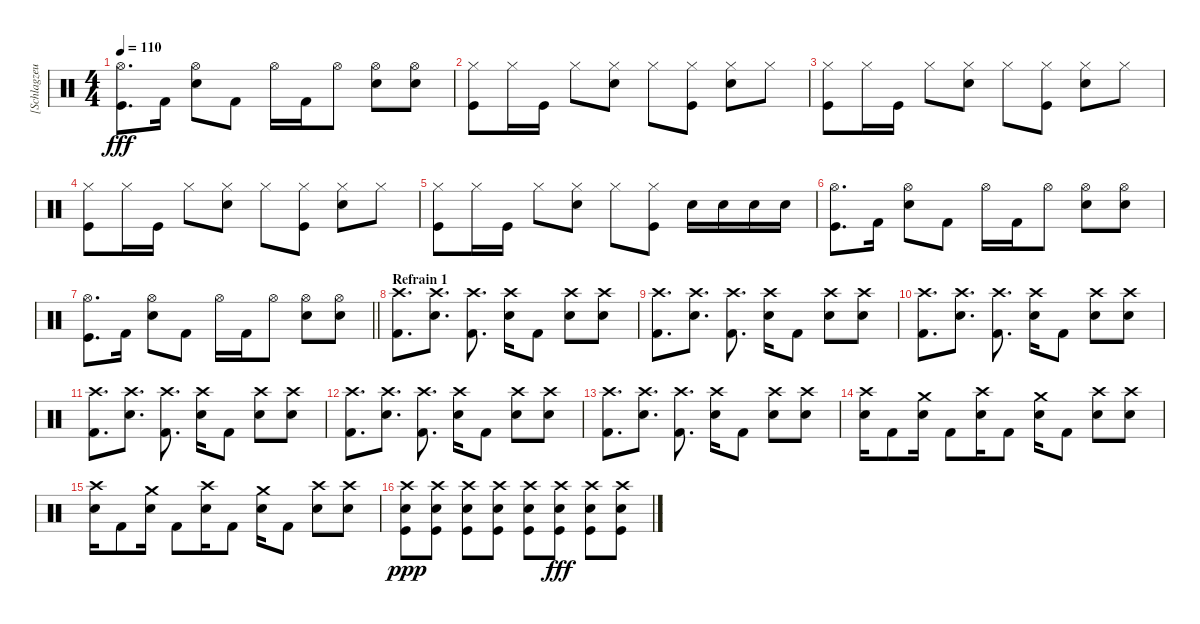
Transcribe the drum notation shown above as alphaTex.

\track ("[Schlagzeug]" "[Schlagzeu") {instrument percussion}
\staff {score}
\articulation defaults
\ts (4 4)
\tempo 110
\clef neutral
\ks c
("Kick (hit)" "Hi-Hat (open)").8{d dy fff} "Kick (hit) 2".16 ("Hi-Hat (open)" "Electric Snare (hit)").8 "Kick (hit) 2".8 "Hi-Hat (open)".16 "Kick (hit) 2".16 "Hi-Hat (open)".8 ("Hi-Hat (open)" "Electric Snare (hit)").8 ("Hi-Hat (open)" "Electric Snare (hit)").8 |
("Hi-Hat (closed)" "Kick (hit)").8 "Hi-Hat (closed)".16 "Kick (hit)".16 "Hi-Hat (closed)".8 ("Hi-Hat (closed)" "Electric Snare (hit)").8 "Hi-Hat (closed)".8 ("Hi-Hat (closed)" "Kick (hit)").8 ("Hi-Hat (closed)" "Electric Snare (hit)").8 "Hi-Hat (closed)".8 |
("Hi-Hat (closed)" "Kick (hit)").8 "Hi-Hat (closed)".16 "Kick (hit)".16 "Hi-Hat (closed)".8 ("Hi-Hat (closed)" "Electric Snare (hit)").8 "Hi-Hat (closed)".8 ("Hi-Hat (closed)" "Kick (hit)").8 ("Hi-Hat (closed)" "Electric Snare (hit)").8 "Hi-Hat (closed)".8 |
("Hi-Hat (closed)" "Kick (hit)").8 "Hi-Hat (closed)".16 "Kick (hit)".16 "Hi-Hat (closed)".8 ("Hi-Hat (closed)" "Electric Snare (hit)").8 "Hi-Hat (closed)".8 ("Hi-Hat (closed)" "Kick (hit)").8 ("Hi-Hat (closed)" "Electric Snare (hit)").8 "Hi-Hat (closed)".8 |
("Hi-Hat (closed)" "Kick (hit)").8 "Hi-Hat (closed)".16 "Kick (hit)".16 "Hi-Hat (closed)".8 ("Hi-Hat (closed)" "Electric Snare (hit)").8 "Hi-Hat (closed)".8 ("Hi-Hat (closed)" "Kick (hit)").8 "Electric Snare (hit)".16 "Electric Snare (hit)".16 "Electric Snare (hit)".16 "Electric Snare (hit)".16 |
("Kick (hit)" "Hi-Hat (open)").8{d} "Kick (hit) 2".16 ("Hi-Hat (open)" "Electric Snare (hit)").8 "Kick (hit) 2".8 "Hi-Hat (open)".16 "Kick (hit) 2".16 "Hi-Hat (open)".8 ("Hi-Hat (open)" "Electric Snare (hit)").8 ("Hi-Hat (open)" "Electric Snare (hit)").8 |
\barLineRight lightlight
("Kick (hit)" "Hi-Hat (open)").8{d} "Kick (hit) 2".16 ("Hi-Hat (open)" "Electric Snare (hit)").8 "Kick (hit) 2".8 "Hi-Hat (open)".16 "Kick (hit) 2".16 "Hi-Hat (open)".8 ("Hi-Hat (open)" "Electric Snare (hit)").8 ("Hi-Hat (open)" "Electric Snare (hit)").8 |
\section ("" "Refrain 1")
("Crash high (hit)" "Kick (hit) 2").8{d} ("Crash high (hit)" "Electric Snare (hit)").8{d} ("Crash high (hit)" "Kick (hit) 2").8{d} ("Crash high (hit)" "Electric Snare (hit)").16 "Kick (hit) 2".8 ("Electric Snare (hit)" "Crash high (hit)").8 ("Electric Snare (hit)" "Crash high (hit)").8 |
("Crash high (hit)" "Kick (hit) 2").8{d} ("Crash high (hit)" "Electric Snare (hit)").8{d} ("Crash high (hit)" "Kick (hit) 2").8{d} ("Crash high (hit)" "Electric Snare (hit)").16 "Kick (hit) 2".8 ("Electric Snare (hit)" "Crash high (hit)").8 ("Electric Snare (hit)" "Crash high (hit)").8 |
("Crash high (hit)" "Kick (hit) 2").8{d} ("Crash high (hit)" "Electric Snare (hit)").8{d} ("Crash high (hit)" "Kick (hit) 2").8{d} ("Crash high (hit)" "Electric Snare (hit)").16 "Kick (hit) 2".8 ("Electric Snare (hit)" "Crash high (hit)").8 ("Electric Snare (hit)" "Crash high (hit)").8 |
("Crash high (hit)" "Kick (hit) 2").8{d} ("Crash high (hit)" "Electric Snare (hit)").8{d} ("Crash high (hit)" "Kick (hit) 2").8{d} ("Crash high (hit)" "Electric Snare (hit)").16 "Kick (hit) 2".8 ("Electric Snare (hit)" "Crash high (hit)").8 ("Electric Snare (hit)" "Crash high (hit)").8 |
("Crash high (hit)" "Kick (hit) 2").8{d} ("Crash high (hit)" "Electric Snare (hit)").8{d} ("Crash high (hit)" "Kick (hit) 2").8{d} ("Crash high (hit)" "Electric Snare (hit)").16 "Kick (hit) 2".8 ("Electric Snare (hit)" "Crash high (hit)").8 ("Electric Snare (hit)" "Crash high (hit)").8 |
("Crash high (hit)" "Kick (hit) 2").8{d} ("Crash high (hit)" "Electric Snare (hit)").8{d} ("Crash high (hit)" "Kick (hit) 2").8{d} ("Crash high (hit)" "Electric Snare (hit)").16 "Kick (hit) 2".8 ("Electric Snare (hit)" "Crash high (hit)").8 ("Electric Snare (hit)" "Crash high (hit)").8 |
("Crash high (hit)" "Electric Snare (hit)").16 "Kick (hit) 2".8 ("Crash medium (hit)" "Electric Snare (hit)").16 "Kick (hit) 2".8 ("Crash high (hit)" "Electric Snare (hit)").16 "Kick (hit) 2".8 ("Crash medium (hit)" "Electric Snare (hit)").16 "Kick (hit) 2".8 ("Crash high (hit)" "Electric Snare (hit)").8 ("Crash high (hit)" "Electric Snare (hit)").8 |
("Crash high (hit)" "Electric Snare (hit)").16 "Kick (hit) 2".8 ("Crash medium (hit)" "Electric Snare (hit)").16 "Kick (hit) 2".8 ("Crash high (hit)" "Electric Snare (hit)").16 "Kick (hit) 2".8 ("Crash medium (hit)" "Electric Snare (hit)").16 "Kick (hit) 2".8 ("Crash high (hit)" "Electric Snare (hit)").8 ("Crash high (hit)" "Electric Snare (hit)").8 |
("Electric Snare (hit)" "Crash high (hit)" "Kick (hit)").8{dy ppp} ("Electric Snare (hit)" "Crash high (hit)" "Kick (hit)").8 ("Electric Snare (hit)" "Crash high (hit)" "Kick (hit)").8 ("Electric Snare (hit)" "Crash high (hit)" "Kick (hit)").8 ("Electric Snare (hit)" "Crash high (hit)" "Kick (hit)").8 ("Electric Snare (hit)" "Crash high (hit)" "Kick (hit)").8{dy fff} ("Electric Snare (hit)" "Crash high (hit)" "Kick (hit)").8 ("Electric Snare (hit)" "Crash high (hit)" "Kick (hit)").8
